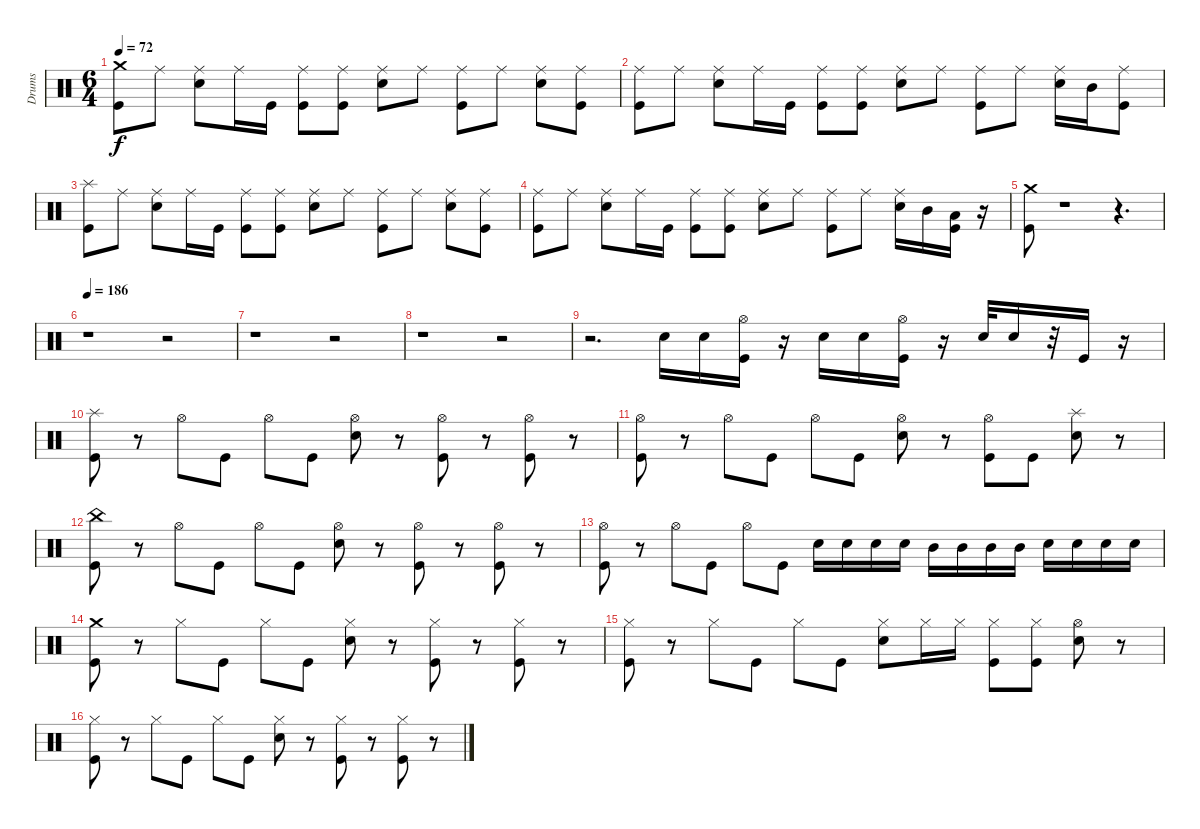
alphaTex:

\track ("Drums" "Drums") {instrument percussion}
\staff {score}
\articulation defaults
\ts (6 4)
\tempo 72
\clef neutral
\ks c
("Crash medium (hit)" "Kick (hit)").8{dy f} "Ride (middle)".8 ("Ride (middle)" "Snare (hit) 2").8 "Ride (middle)".16 "Kick (hit)".16 ("Ride (middle)" "Kick (hit)").8 ("Ride (middle)" "Kick (hit)").8 ("Ride (middle)" "Snare (hit) 2").8 "Ride (middle)".8 ("Ride (middle)" "Kick (hit)").8 "Ride (middle)".8 ("Ride (middle)" "Snare (hit) 2").8 ("Ride (middle)" "Kick (hit)").8 |
("Ride (middle)" "Kick (hit)").8 "Ride (middle)".8 ("Ride (middle)" "Snare (hit) 2").8 "Ride (middle)".16 "Kick (hit)".16 ("Ride (middle)" "Kick (hit)").8 ("Kick (hit)" "Ride (middle)").8 ("Ride (middle)" "Snare (hit) 2").8 "Ride (middle)".8 ("Ride (middle)" "Kick (hit)").8 "Ride (middle)".8 ("Ride (middle)" "Snare (hit) 2").16 "Mid Tom (hit)".16 ("Ride (middle)" "Kick (hit)").8 |
("Splash (hit)" "Kick (hit)").8 "Ride (middle)".8 ("Snare (hit) 2" "Ride (middle)").8 "Ride (middle)".16 "Kick (hit)".16 ("Ride (middle)" "Kick (hit)").8 ("Kick (hit)" "Ride (middle)").8 ("Ride (middle)" "Snare (hit) 2").8 "Ride (middle)".8 ("Ride (middle)" "Kick (hit)").8 "Ride (middle)".8 ("Ride (middle)" "Snare (hit) 2").8 ("Kick (hit)" "Ride (middle)").8 |
("Ride (middle)" "Kick (hit)").8 "Ride (middle)".8 ("Ride (middle)" "Snare (hit) 2").8 "Ride (middle)".16 "Kick (hit)".16 ("Kick (hit)" "Ride (middle)").8 ("Kick (hit)" "Ride (middle)").8 ("Snare (hit) 2" "Ride (middle)").8 "Ride (middle)".8 ("Kick (hit)" "Ride (middle)").8 "Ride (middle)".8 ("Snare (hit) 2" "Ride (middle)").16 "Mid Tom (hit)".16 ("Kick (hit)" "Low Tom (hit)").16 r.16 |
("Kick (hit)" "Crash medium (hit)").8 r.1 r.4{d} |
\tempo 186
r.1 r.2 |
r.1 r.2 |
r.1 r.2 |
r.2{d} "Snare (hit) 2".16 "Snare (hit) 2".16 ("Hi-Hat (open)" "Kick (hit)").16 r.16 "Snare (hit) 2".16 "Snare (hit) 2".16 ("Hi-Hat (open)" "Kick (hit)").16 r.16 "Snare (hit) 2".32 "Snare (hit) 2".16 r.32 "Kick (hit)".16 r.16 |
("Kick (hit)" "Splash (hit)").8 r.8 "Hi-Hat (open)".8 "Kick (hit)".8 "Hi-Hat (open)".8 "Kick (hit)".8 ("Hi-Hat (open)" "Snare (hit) 2").8 r.8 ("Hi-Hat (open)" "Kick (hit)").8 r.8 ("Hi-Hat (open)" "Kick (hit)").8 r.8 |
("Hi-Hat (open)" "Kick (hit)").8 r.8 "Hi-Hat (open)".8 "Kick (hit)".8 "Hi-Hat (open)".8 "Kick (hit)".8 ("Hi-Hat (open)" "Snare (hit) 2").8 r.8 ("Hi-Hat (open)" "Kick (hit)").8 "Kick (hit)".8 ("Snare (hit) 2" "Splash (hit)").8 r.8 |
("Kick (hit)" "China (hit)").8 r.8 "Hi-Hat (open)".8 "Kick (hit)".8 "Hi-Hat (open)".8 "Kick (hit)".8 ("Hi-Hat (open)" "Snare (hit) 2").8 r.8 ("Hi-Hat (open)" "Kick (hit)").8 r.8 ("Hi-Hat (open)" "Kick (hit)").8 r.8 |
("Hi-Hat (open)" "Kick (hit)").8 r.8 "Hi-Hat (open)".8 "Kick (hit)".8 "Hi-Hat (open)".8 "Kick (hit)".8 "Snare (hit) 2".16 "Snare (hit) 2".16 "Snare (hit) 2".16 "Snare (hit) 2".16 "Mid Tom (hit)".16 "Mid Tom (hit)".16 "Mid Tom (hit)".16 "Mid Tom (hit)".16 "Snare (hit) 2".16 "Snare (hit) 2".16 "Snare (hit) 2".16 "Snare (hit) 2".16 |
("Crash medium (hit)" "Kick (hit)").8 r.8 "Hi-Hat (closed)".8 "Kick (hit)".8 "Hi-Hat (closed)".8 "Kick (hit)".8 ("Hi-Hat (closed)" "Snare (hit) 2").8 r.8 ("Hi-Hat (closed)" "Kick (hit)").8 r.8 ("Hi-Hat (closed)" "Kick (hit)").8 r.8 |
("Hi-Hat (closed)" "Kick (hit)").8 r.8 "Hi-Hat (closed)".8 "Kick (hit)".8 "Hi-Hat (closed)".8 "Kick (hit)".8 ("Hi-Hat (closed)" "Snare (hit) 2").8 "Hi-Hat (closed)".16 "Hi-Hat (closed)".16 ("Hi-Hat (closed)" "Kick (hit)").8 ("Hi-Hat (closed)" "Kick (hit)").8 ("Hi-Hat (open)" "Snare (hit) 2").8 r.8 |
("Hi-Hat (closed)" "Kick (hit)").8 r.8 "Hi-Hat (closed)".8 "Kick (hit)".8 "Hi-Hat (closed)".8 "Kick (hit)".8 ("Hi-Hat (closed)" "Snare (hit) 2").8 r.8 ("Hi-Hat (closed)" "Kick (hit)").8 r.8 ("Hi-Hat (closed)" "Kick (hit)").8 r.8
